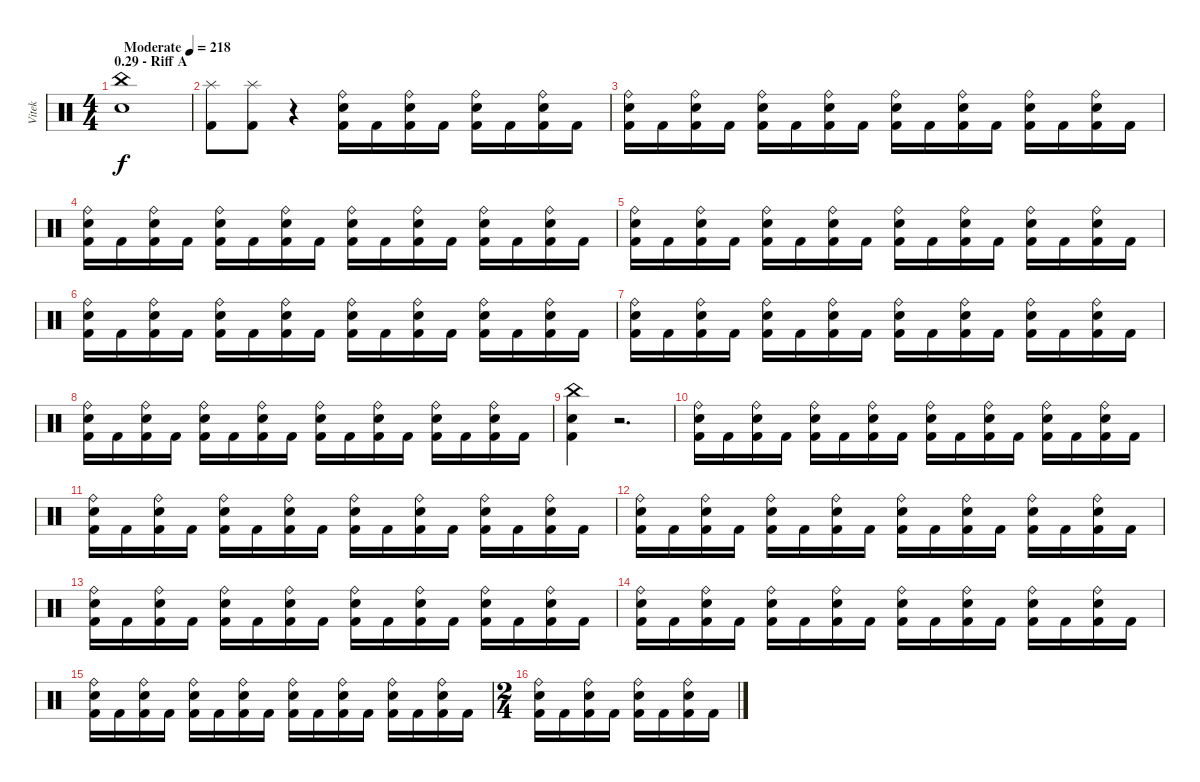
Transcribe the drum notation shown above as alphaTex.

\track ("Vitek" "Vitek") {instrument percussion}
\staff {score}
\articulation defaults
\ts (4 4)
\section ("" "0.29 - Riff A")
\tempo (218 "Moderate")
\clef neutral
\ks c
("China (hit)" "Electric Snare (hit)").1{dy f} |
("Splash (hit)" "Kick (hit) 2").8 ("Splash (hit)" "Kick (hit) 2").8 r.4 ("Ride (bell)" "Electric Snare (hit)" "Kick (hit) 2").16 "Kick (hit) 2".16 ("Ride (bell)" "Electric Snare (hit)" "Kick (hit) 2").16 "Kick (hit) 2".16 ("Ride (bell)" "Electric Snare (hit)" "Kick (hit) 2").16 "Kick (hit) 2".16 ("Ride (bell)" "Electric Snare (hit)" "Kick (hit) 2").16 "Kick (hit) 2".16 |
("Ride (bell)" "Electric Snare (hit)" "Kick (hit) 2").16 "Kick (hit) 2".16 ("Ride (bell)" "Electric Snare (hit)" "Kick (hit) 2").16 "Kick (hit) 2".16 ("Ride (bell)" "Electric Snare (hit)" "Kick (hit) 2").16 "Kick (hit) 2".16 ("Ride (bell)" "Electric Snare (hit)" "Kick (hit) 2").16 "Kick (hit) 2".16 ("Ride (bell)" "Electric Snare (hit)" "Kick (hit) 2").16 "Kick (hit) 2".16 ("Ride (bell)" "Electric Snare (hit)" "Kick (hit) 2").16 "Kick (hit) 2".16 ("Ride (bell)" "Electric Snare (hit)" "Kick (hit) 2").16 "Kick (hit) 2".16 ("Ride (bell)" "Electric Snare (hit)" "Kick (hit) 2").16 "Kick (hit) 2".16 |
("Ride (bell)" "Electric Snare (hit)" "Kick (hit) 2").16 "Kick (hit) 2".16 ("Ride (bell)" "Electric Snare (hit)" "Kick (hit) 2").16 "Kick (hit) 2".16 ("Ride (bell)" "Electric Snare (hit)" "Kick (hit) 2").16 "Kick (hit) 2".16 ("Ride (bell)" "Electric Snare (hit)" "Kick (hit) 2").16 "Kick (hit) 2".16 ("Ride (bell)" "Electric Snare (hit)" "Kick (hit) 2").16 "Kick (hit) 2".16 ("Ride (bell)" "Electric Snare (hit)" "Kick (hit) 2").16 "Kick (hit) 2".16 ("Ride (bell)" "Electric Snare (hit)" "Kick (hit) 2").16 "Kick (hit) 2".16 ("Ride (bell)" "Electric Snare (hit)" "Kick (hit) 2").16 "Kick (hit) 2".16 |
("Ride (bell)" "Electric Snare (hit)" "Kick (hit) 2").16 "Kick (hit) 2".16 ("Ride (bell)" "Electric Snare (hit)" "Kick (hit) 2").16 "Kick (hit) 2".16 ("Ride (bell)" "Electric Snare (hit)" "Kick (hit) 2").16 "Kick (hit) 2".16 ("Ride (bell)" "Electric Snare (hit)" "Kick (hit) 2").16 "Kick (hit) 2".16 ("Ride (bell)" "Electric Snare (hit)" "Kick (hit) 2").16 "Kick (hit) 2".16 ("Ride (bell)" "Electric Snare (hit)" "Kick (hit) 2").16 "Kick (hit) 2".16 ("Ride (bell)" "Electric Snare (hit)" "Kick (hit) 2").16 "Kick (hit) 2".16 ("Ride (bell)" "Electric Snare (hit)" "Kick (hit) 2").16 "Kick (hit) 2".16 |
("Ride (bell)" "Electric Snare (hit)" "Kick (hit) 2").16 "Kick (hit) 2".16 ("Ride (bell)" "Electric Snare (hit)" "Kick (hit) 2").16 "Kick (hit) 2".16 ("Ride (bell)" "Electric Snare (hit)" "Kick (hit) 2").16 "Kick (hit) 2".16 ("Ride (bell)" "Electric Snare (hit)" "Kick (hit) 2").16 "Kick (hit) 2".16 ("Ride (bell)" "Electric Snare (hit)" "Kick (hit) 2").16 "Kick (hit) 2".16 ("Ride (bell)" "Electric Snare (hit)" "Kick (hit) 2").16 "Kick (hit) 2".16 ("Ride (bell)" "Electric Snare (hit)" "Kick (hit) 2").16 "Kick (hit) 2".16 ("Ride (bell)" "Electric Snare (hit)" "Kick (hit) 2").16 "Kick (hit) 2".16 |
("Ride (bell)" "Electric Snare (hit)" "Kick (hit) 2").16 "Kick (hit) 2".16 ("Ride (bell)" "Electric Snare (hit)" "Kick (hit) 2").16 "Kick (hit) 2".16 ("Ride (bell)" "Electric Snare (hit)" "Kick (hit) 2").16 "Kick (hit) 2".16 ("Ride (bell)" "Electric Snare (hit)" "Kick (hit) 2").16 "Kick (hit) 2".16 ("Ride (bell)" "Electric Snare (hit)" "Kick (hit) 2").16 "Kick (hit) 2".16 ("Ride (bell)" "Electric Snare (hit)" "Kick (hit) 2").16 "Kick (hit) 2".16 ("Ride (bell)" "Electric Snare (hit)" "Kick (hit) 2").16 "Kick (hit) 2".16 ("Ride (bell)" "Electric Snare (hit)" "Kick (hit) 2").16 "Kick (hit) 2".16 |
("Ride (bell)" "Electric Snare (hit)" "Kick (hit) 2").16 "Kick (hit) 2".16 ("Ride (bell)" "Electric Snare (hit)" "Kick (hit) 2").16 "Kick (hit) 2".16 ("Ride (bell)" "Electric Snare (hit)" "Kick (hit) 2").16 "Kick (hit) 2".16 ("Ride (bell)" "Electric Snare (hit)" "Kick (hit) 2").16 "Kick (hit) 2".16 ("Ride (bell)" "Electric Snare (hit)" "Kick (hit) 2").16 "Kick (hit) 2".16 ("Ride (bell)" "Electric Snare (hit)" "Kick (hit) 2").16 "Kick (hit) 2".16 ("Ride (bell)" "Electric Snare (hit)" "Kick (hit) 2").16 "Kick (hit) 2".16 ("Ride (bell)" "Electric Snare (hit)" "Kick (hit) 2").16 "Kick (hit) 2".16 |
("China (hit)" "Electric Snare (hit)" "Kick (hit) 2").4 r.2{d} |
("Ride (bell)" "Electric Snare (hit)" "Kick (hit) 2").16 "Kick (hit) 2".16 ("Ride (bell)" "Electric Snare (hit)" "Kick (hit) 2").16 "Kick (hit) 2".16 ("Ride (bell)" "Electric Snare (hit)" "Kick (hit) 2").16 "Kick (hit) 2".16 ("Ride (bell)" "Electric Snare (hit)" "Kick (hit) 2").16 "Kick (hit) 2".16 ("Ride (bell)" "Electric Snare (hit)" "Kick (hit) 2").16 "Kick (hit) 2".16 ("Ride (bell)" "Electric Snare (hit)" "Kick (hit) 2").16 "Kick (hit) 2".16 ("Ride (bell)" "Electric Snare (hit)" "Kick (hit) 2").16 "Kick (hit) 2".16 ("Ride (bell)" "Electric Snare (hit)" "Kick (hit) 2").16 "Kick (hit) 2".16 |
("Ride (bell)" "Electric Snare (hit)" "Kick (hit) 2").16 "Kick (hit) 2".16 ("Ride (bell)" "Electric Snare (hit)" "Kick (hit) 2").16 "Kick (hit) 2".16 ("Ride (bell)" "Electric Snare (hit)" "Kick (hit) 2").16 "Kick (hit) 2".16 ("Ride (bell)" "Electric Snare (hit)" "Kick (hit) 2").16 "Kick (hit) 2".16 ("Ride (bell)" "Electric Snare (hit)" "Kick (hit) 2").16 "Kick (hit) 2".16 ("Ride (bell)" "Electric Snare (hit)" "Kick (hit) 2").16 "Kick (hit) 2".16 ("Ride (bell)" "Electric Snare (hit)" "Kick (hit) 2").16 "Kick (hit) 2".16 ("Ride (bell)" "Electric Snare (hit)" "Kick (hit) 2").16 "Kick (hit) 2".16 |
("Ride (bell)" "Electric Snare (hit)" "Kick (hit) 2").16 "Kick (hit) 2".16 ("Ride (bell)" "Electric Snare (hit)" "Kick (hit) 2").16 "Kick (hit) 2".16 ("Ride (bell)" "Electric Snare (hit)" "Kick (hit) 2").16 "Kick (hit) 2".16 ("Ride (bell)" "Electric Snare (hit)" "Kick (hit) 2").16 "Kick (hit) 2".16 ("Ride (bell)" "Electric Snare (hit)" "Kick (hit) 2").16 "Kick (hit) 2".16 ("Ride (bell)" "Electric Snare (hit)" "Kick (hit) 2").16 "Kick (hit) 2".16 ("Ride (bell)" "Electric Snare (hit)" "Kick (hit) 2").16 "Kick (hit) 2".16 ("Ride (bell)" "Electric Snare (hit)" "Kick (hit) 2").16 "Kick (hit) 2".16 |
("Ride (bell)" "Electric Snare (hit)" "Kick (hit) 2").16 "Kick (hit) 2".16 ("Ride (bell)" "Electric Snare (hit)" "Kick (hit) 2").16 "Kick (hit) 2".16 ("Ride (bell)" "Electric Snare (hit)" "Kick (hit) 2").16 "Kick (hit) 2".16 ("Ride (bell)" "Electric Snare (hit)" "Kick (hit) 2").16 "Kick (hit) 2".16 ("Ride (bell)" "Electric Snare (hit)" "Kick (hit) 2").16 "Kick (hit) 2".16 ("Ride (bell)" "Electric Snare (hit)" "Kick (hit) 2").16 "Kick (hit) 2".16 ("Ride (bell)" "Electric Snare (hit)" "Kick (hit) 2").16 "Kick (hit) 2".16 ("Ride (bell)" "Electric Snare (hit)" "Kick (hit) 2").16 "Kick (hit) 2".16 |
("Ride (bell)" "Electric Snare (hit)" "Kick (hit) 2").16 "Kick (hit) 2".16 ("Ride (bell)" "Electric Snare (hit)" "Kick (hit) 2").16 "Kick (hit) 2".16 ("Ride (bell)" "Electric Snare (hit)" "Kick (hit) 2").16 "Kick (hit) 2".16 ("Ride (bell)" "Electric Snare (hit)" "Kick (hit) 2").16 "Kick (hit) 2".16 ("Ride (bell)" "Electric Snare (hit)" "Kick (hit) 2").16 "Kick (hit) 2".16 ("Ride (bell)" "Electric Snare (hit)" "Kick (hit) 2").16 "Kick (hit) 2".16 ("Ride (bell)" "Electric Snare (hit)" "Kick (hit) 2").16 "Kick (hit) 2".16 ("Ride (bell)" "Electric Snare (hit)" "Kick (hit) 2").16 "Kick (hit) 2".16 |
("Ride (bell)" "Electric Snare (hit)" "Kick (hit) 2").16 "Kick (hit) 2".16 ("Ride (bell)" "Electric Snare (hit)" "Kick (hit) 2").16 "Kick (hit) 2".16 ("Ride (bell)" "Electric Snare (hit)" "Kick (hit) 2").16 "Kick (hit) 2".16 ("Ride (bell)" "Electric Snare (hit)" "Kick (hit) 2").16 "Kick (hit) 2".16 ("Ride (bell)" "Electric Snare (hit)" "Kick (hit) 2").16 "Kick (hit) 2".16 ("Ride (bell)" "Electric Snare (hit)" "Kick (hit) 2").16 "Kick (hit) 2".16 ("Ride (bell)" "Electric Snare (hit)" "Kick (hit) 2").16 "Kick (hit) 2".16 ("Ride (bell)" "Electric Snare (hit)" "Kick (hit) 2").16 "Kick (hit) 2".16 |
\ts (2 4)
("Ride (bell)" "Electric Snare (hit)" "Kick (hit) 2").16 "Kick (hit) 2".16 ("Ride (bell)" "Electric Snare (hit)" "Kick (hit) 2").16 "Kick (hit) 2".16 ("Ride (bell)" "Electric Snare (hit)" "Kick (hit) 2").16 "Kick (hit) 2".16 ("Ride (bell)" "Electric Snare (hit)" "Kick (hit) 2").16 "Kick (hit) 2".16
